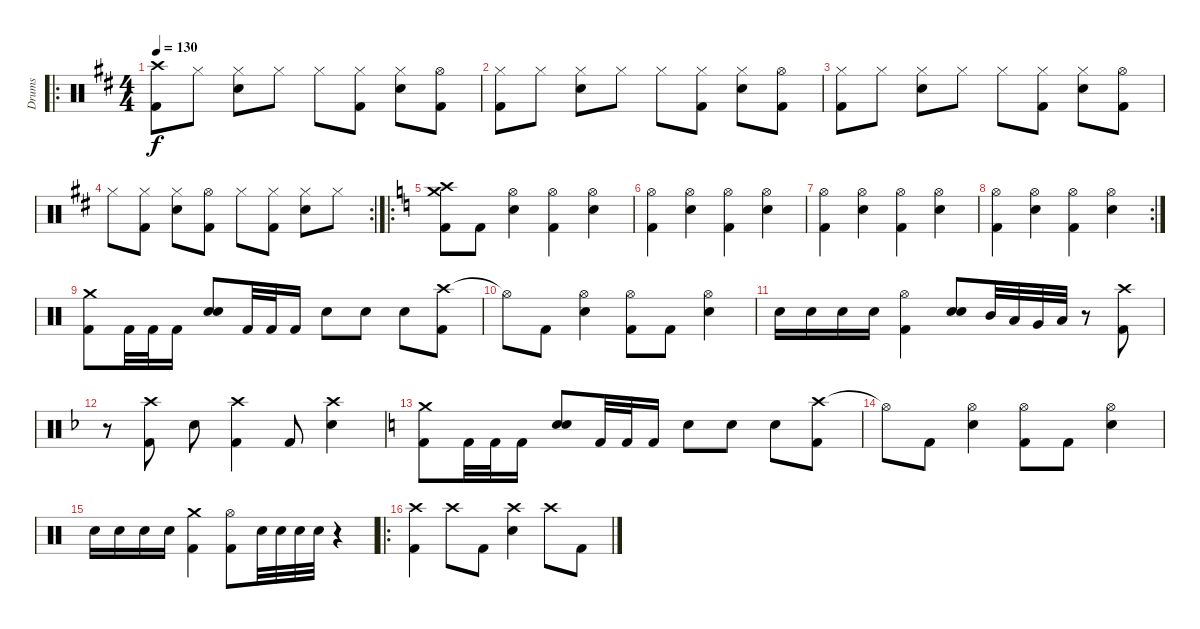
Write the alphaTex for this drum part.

\track ("Drums" "Drums") {instrument percussion}
\staff {score}
\articulation defaults
\ro
\ts (4 4)
\tempo 130
\clef neutral
\ks d
("Crash high (hit)" "Kick (hit) 2").8{dy f} "Hi-Hat (closed)".8 ("Hi-Hat (closed)" "Snare (hit) 2").8 "Hi-Hat (closed)".8 "Hi-Hat (closed)".8 ("Hi-Hat (closed)" "Kick (hit) 2").8 ("Hi-Hat (closed)" "Snare (hit) 2").8 ("Hi-Hat (open)" "Kick (hit) 2").8 |
("Hi-Hat (closed)" "Kick (hit) 2").8 "Hi-Hat (closed)".8 ("Hi-Hat (closed)" "Snare (hit) 2").8 "Hi-Hat (closed)".8 "Hi-Hat (closed)".8 ("Hi-Hat (closed)" "Kick (hit) 2").8 ("Hi-Hat (closed)" "Snare (hit) 2").8 ("Hi-Hat (open)" "Kick (hit) 2").8 |
("Hi-Hat (closed)" "Kick (hit) 2").8 "Hi-Hat (closed)".8 ("Hi-Hat (closed)" "Snare (hit) 2").8 "Hi-Hat (closed)".8 "Hi-Hat (closed)".8 ("Hi-Hat (closed)" "Kick (hit) 2").8 ("Hi-Hat (closed)" "Snare (hit) 2").8 ("Hi-Hat (open)" "Kick (hit) 2").8 |
\rc 2 "Hi-Hat (closed)".8
("Hi-Hat (closed)" "Kick (hit) 2").8 ("Hi-Hat (closed)" "Snare (hit) 2").8 ("Hi-Hat (open)" "Kick (hit) 2").8 "Hi-Hat (closed)".8 ("Hi-Hat (closed)" "Kick (hit) 2").8 ("Hi-Hat (closed)" "Snare (hit) 2").8 "Hi-Hat (closed)".8 |
\ro
\ks c
("Crash high (hit)" "Crash medium (hit)" "Kick (hit) 2").8 "Kick (hit) 2".8 ("Hi-Hat (open)" "Snare (hit) 2").4 ("Hi-Hat (open)" "Kick (hit) 2").4 ("Hi-Hat (open)" "Snare (hit) 2").4 |
("Hi-Hat (open)" "Kick (hit) 2").4 ("Hi-Hat (open)" "Snare (hit) 2").4 ("Hi-Hat (open)" "Kick (hit) 2").4 ("Hi-Hat (open)" "Snare (hit) 2").4 |
("Hi-Hat (open)" "Kick (hit) 2").4 ("Hi-Hat (open)" "Snare (hit) 2").4 ("Hi-Hat (open)" "Kick (hit) 2").4 ("Hi-Hat (open)" "Snare (hit) 2").4 |
\rc 2
("Hi-Hat (open)" "Kick (hit) 2").4 ("Hi-Hat (open)" "Snare (hit) 2").4 ("Hi-Hat (open)" "Kick (hit) 2").4 ("Hi-Hat (open)" "Snare (hit) 2").4 |
("Crash medium (hit)" "Kick (hit) 2").8 "Kick (hit) 2".32 "Kick (hit) 2".32 "Kick (hit) 2".16 ("Snare (hit) 2" "Snare (hit) 2").8{bd 120} "Kick (hit) 2".32 "Kick (hit) 2".32 "Kick (hit) 2".16 "Snare (hit) 2".8 "Snare (hit) 2".8 "Snare (hit) 2".8 ("Crash high (hit)" "Kick (hit) 2").8 |
"Hi-Hat (open)"{t}.8 "Kick (hit) 2".8 ("Hi-Hat (open)" "Snare (hit) 2").4 ("Hi-Hat (open)" "Kick (hit) 2").8 "Kick (hit) 2".8 ("Hi-Hat (open)" "Snare (hit) 2").4 |
"Snare (hit) 2".16 "Snare (hit) 2".16 "Snare (hit) 2".16 "Snare (hit) 2".16 ("Hi-Hat (open)" "Kick (hit) 2").4 ("Snare (hit) 2" "Snare (hit) 2").8{bd 120} "Mid Tom (hit)".32 "Low Tom (hit)".32 "Very Low Tom (hit)".32 "Low Floor Tom (hit)".32 r.8 ("Crash high (hit)" "Kick (hit) 2").8 |
\ks f
r.8 ("Crash high (hit)" "Kick (hit) 2").8 "Snare (hit) 2".8 ("Crash high (hit)" "Kick (hit) 2").4 "Kick (hit) 2".8 ("Crash high (hit)" "Snare (hit) 2").4 |
\ks c
("Crash medium (hit)" "Kick (hit) 2").8 "Kick (hit) 2".32 "Kick (hit) 2".32 "Kick (hit) 2".16 ("Snare (hit) 2" "Snare (hit) 2").8{bd 120} "Kick (hit) 2".32 "Kick (hit) 2".32 "Kick (hit) 2".16 "Snare (hit) 2".8 "Snare (hit) 2".8 "Snare (hit) 2".8 ("Crash high (hit)" "Kick (hit) 2").8 |
"Hi-Hat (open)"{t}.8 "Kick (hit) 2".8 ("Hi-Hat (open)" "Snare (hit) 2").4 ("Hi-Hat (open)" "Kick (hit) 2").8 "Kick (hit) 2".8 ("Hi-Hat (open)" "Snare (hit) 2").4 |
"Snare (hit) 2".16 "Snare (hit) 2".16 "Snare (hit) 2".16 "Snare (hit) 2".16 ("Crash medium (hit)" "Kick (hit) 2").4 ("Hi-Hat (open)" "Kick (hit) 2").8{bd 120} "Snare (hit) 2".32 "Snare (hit) 2".32 "Snare (hit) 2".32 "Snare (hit) 2".32 r.4 |
\ro
("Crash high (hit)" "Kick (hit) 2").4 "Crash high (hit)".8 "Kick (hit) 2".8 ("Crash high (hit)" "Snare (hit) 2").4 "Crash high (hit)".8 "Kick (hit) 2".8
